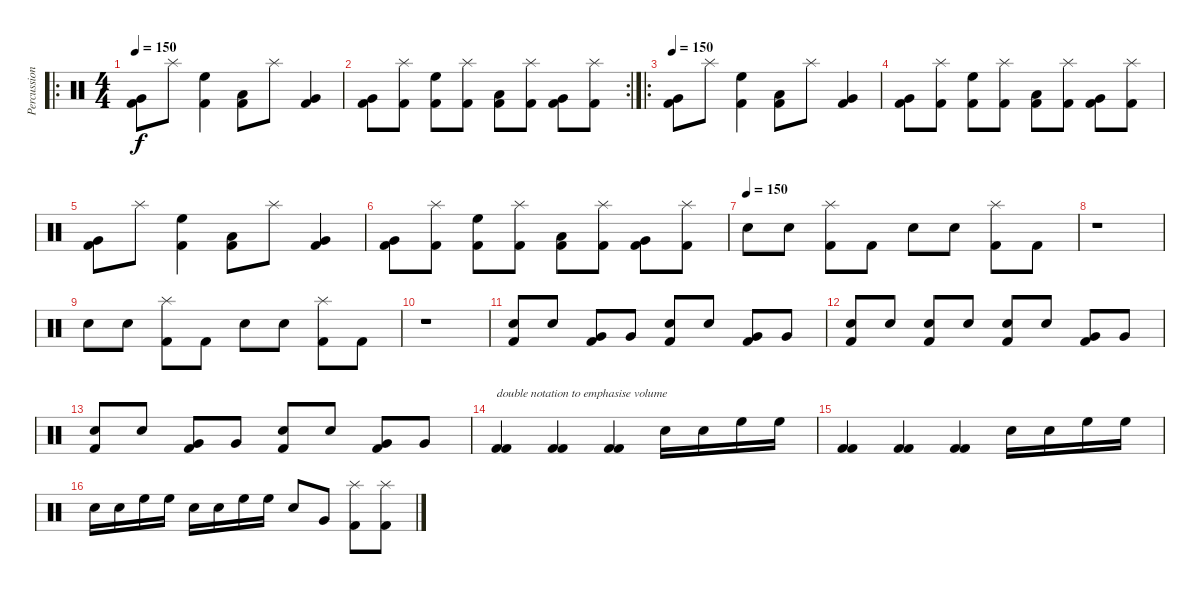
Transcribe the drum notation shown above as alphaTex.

\track ("Percussion" "Percussion") {instrument percussion}
\staff {score}
\articulation defaults
\ro
\ts (4 4)
\tempo 150
\clef neutral
\ks c
("Very Low Tom (hit)" "Kick (hit) 2").8{dy f} "Splash (hit)".8 ("High Floor Tom (hit)" "Kick (hit) 2").4 ("Low Tom (hit)" "Kick (hit) 2").8 "Splash (hit)".8 ("Very Low Tom (hit)" "Kick (hit) 2").4 |
\rc 2
("Very Low Tom (hit)" "Kick (hit) 2").8 ("Splash (hit)" "Kick (hit) 2").8 ("High Floor Tom (hit)" "Kick (hit) 2").8 ("Splash (hit)" "Kick (hit) 2").8 ("Low Tom (hit)" "Kick (hit) 2").8 ("Splash (hit)" "Kick (hit) 2").8 ("Very Low Tom (hit)" "Kick (hit) 2").8 ("Splash (hit)" "Kick (hit) 2").8 |
\ro
\tempo 150
("Very Low Tom (hit)" "Kick (hit) 2").8 "Splash (hit)".8 ("High Floor Tom (hit)" "Kick (hit) 2").4 ("Low Tom (hit)" "Kick (hit) 2").8 "Splash (hit)".8 ("Very Low Tom (hit)" "Kick (hit) 2").4 |
("Very Low Tom (hit)" "Kick (hit) 2").8 ("Splash (hit)" "Kick (hit) 2").8 ("High Floor Tom (hit)" "Kick (hit) 2").8 ("Splash (hit)" "Kick (hit) 2").8 ("Low Tom (hit)" "Kick (hit) 2").8 ("Splash (hit)" "Kick (hit) 2").8 ("Very Low Tom (hit)" "Kick (hit) 2").8 ("Splash (hit)" "Kick (hit) 2").8 |
("Very Low Tom (hit)" "Kick (hit) 2").8 "Splash (hit)".8 ("High Floor Tom (hit)" "Kick (hit) 2").4 ("Low Tom (hit)" "Kick (hit) 2").8 "Splash (hit)".8 ("Very Low Tom (hit)" "Kick (hit) 2").4 |
("Very Low Tom (hit)" "Kick (hit) 2").8 ("Splash (hit)" "Kick (hit) 2").8 ("High Floor Tom (hit)" "Kick (hit) 2").8 ("Splash (hit)" "Kick (hit) 2").8 ("Low Tom (hit)" "Kick (hit) 2").8 ("Splash (hit)" "Kick (hit) 2").8 ("Very Low Tom (hit)" "Kick (hit) 2").8 ("Splash (hit)" "Kick (hit) 2").8 |
\tempo (150)
"Snare (hit) 2".8 "Snare (hit) 2".8 ("Splash (hit)" "Kick (hit) 2").8 "Kick (hit) 2".8 "Snare (hit) 2".8 "Snare (hit) 2".8 ("Splash (hit)" "Kick (hit) 2").8 "Kick (hit) 2".8 |
r.1 |
"Snare (hit) 2".8 "Snare (hit) 2".8 ("Splash (hit)" "Kick (hit) 2").8 "Kick (hit) 2".8 "Snare (hit) 2".8 "Snare (hit) 2".8 ("Splash (hit)" "Kick (hit) 2").8 "Kick (hit) 2".8 |
r.1 |
("Snare (hit) 2" "Kick (hit) 2").8 "Snare (hit) 2".8 ("Very Low Tom (hit)" "Kick (hit) 2").8 "Very Low Tom (hit)".8 ("Snare (hit) 2" "Kick (hit) 2").8 "Snare (hit) 2".8 ("Very Low Tom (hit)" "Kick (hit) 2").8 "Very Low Tom (hit)".8 |
("Snare (hit) 2" "Kick (hit) 2").8 "Snare (hit) 2".8 ("Snare (hit) 2" "Kick (hit) 2").8 "Snare (hit) 2".8 ("Snare (hit) 2" "Kick (hit) 2").8 "Snare (hit) 2".8 ("Very Low Tom (hit)" "Kick (hit) 2").8 "Very Low Tom (hit)".8 |
("Snare (hit) 2" "Kick (hit) 2").8 "Snare (hit) 2".8 ("Very Low Tom (hit)" "Kick (hit) 2").8 "Very Low Tom (hit)".8 ("Snare (hit) 2" "Kick (hit) 2").8 "Snare (hit) 2".8 ("Very Low Tom (hit)" "Kick (hit) 2").8 "Very Low Tom (hit)".8 |
("Kick (hit) 2" "Kick (hit) 2").4{txt "double notation to emphasise volume"} ("Kick (hit) 2" "Kick (hit) 2").4 ("Kick (hit) 2" "Kick (hit) 2").4 "Snare (hit) 2".16 "Snare (hit) 2".16 "High Floor Tom (hit)".16 "High Floor Tom (hit)".16 |
("Kick (hit) 2" "Kick (hit) 2").4 ("Kick (hit) 2" "Kick (hit) 2").4 ("Kick (hit) 2" "Kick (hit) 2").4 "Snare (hit) 2".16 "Snare (hit) 2".16 "High Floor Tom (hit)".16 "High Floor Tom (hit)".16 |
"Snare (hit) 2".16 "Snare (hit) 2".16 "High Floor Tom (hit)".16 "High Floor Tom (hit)".16 "Snare (hit) 2".16 "Snare (hit) 2".16 "High Floor Tom (hit)".16 "High Floor Tom (hit)".16 "Snare (hit) 2".8 "Very Low Tom (hit)".8 ("Splash (hit)" "Kick (hit) 2").8 ("Splash (hit)" "Kick (hit) 2").8
